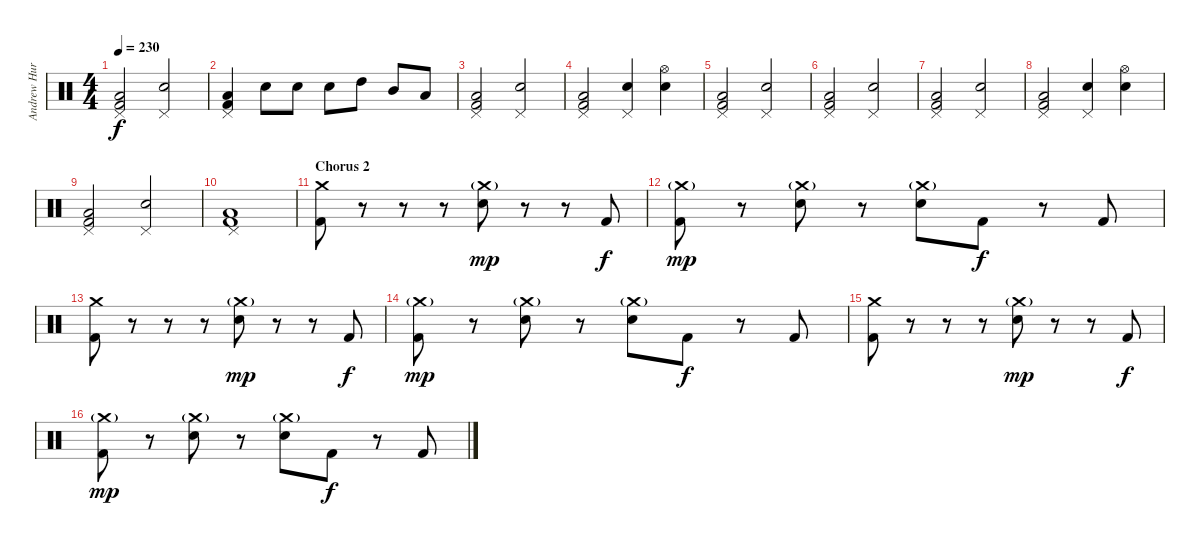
\track ("Andrew Hurley (Drums)" "Andrew Hur") {instrument percussion}
\staff {score}
\articulation defaults
\ts (4 4)
\tempo 230
\clef neutral
\ks c
("Pedal Hi-Hat (hit)" "Low Floor Tom (hit)" "Kick (hit) 2").2{dy f} ("Pedal Hi-Hat (hit)" "Electric Snare (hit)").2 |
("Pedal Hi-Hat (hit)" "Low Floor Tom (hit)" "Kick (hit) 2").4 "Electric Snare (hit)".8 "Electric Snare (hit)".8 "Electric Snare (hit)".8 "High Tom (hit)".8 "Mid Tom (hit)".8 "Low Tom (hit)".8 |
("Pedal Hi-Hat (hit)" "Low Floor Tom (hit)" "Kick (hit) 2").2 ("Pedal Hi-Hat (hit)" "Electric Snare (hit)").2 |
("Pedal Hi-Hat (hit)" "Low Floor Tom (hit)" "Kick (hit) 2").2 ("Pedal Hi-Hat (hit)" "Electric Snare (hit)").4 ("Hi-Hat (open)" "Electric Snare (hit)").4 |
("Pedal Hi-Hat (hit)" "Low Floor Tom (hit)" "Kick (hit) 2").2 ("Pedal Hi-Hat (hit)" "Electric Snare (hit)").2 |
("Pedal Hi-Hat (hit)" "Low Floor Tom (hit)" "Kick (hit) 2").2 ("Pedal Hi-Hat (hit)" "Electric Snare (hit)").2 |
("Pedal Hi-Hat (hit)" "Low Floor Tom (hit)" "Kick (hit) 2").2 ("Pedal Hi-Hat (hit)" "Electric Snare (hit)").2 |
("Pedal Hi-Hat (hit)" "Low Floor Tom (hit)" "Kick (hit) 2").2 ("Pedal Hi-Hat (hit)" "Electric Snare (hit)").4 ("Hi-Hat (open)" "Electric Snare (hit)").4 |
("Pedal Hi-Hat (hit)" "Low Floor Tom (hit)" "Kick (hit) 2").2 ("Pedal Hi-Hat (hit)" "Electric Snare (hit)").2 |
("Pedal Hi-Hat (hit)" "Low Floor Tom (hit)" "Kick (hit) 2").1 |
\section ("" "Chorus 2")
("Crash medium (hit)" "Kick (hit) 2").8 r.8 r.8 r.8 ("Crash medium (hit)"{g} "Electric Snare (hit)").8{dy mp} r.8 r.8 "Kick (hit) 2".8{dy f} |
("Crash medium (hit)"{g} "Kick (hit) 2").8{dy mp} r.8 ("Crash medium (hit)"{g} "Electric Snare (hit)").8 r.8 ("Crash medium (hit)"{g} "Electric Snare (hit)").8 "Kick (hit) 2".8{dy f} r.8 "Kick (hit) 2".8 |
("Crash medium (hit)" "Kick (hit) 2").8 r.8 r.8 r.8 ("Crash medium (hit)"{g} "Electric Snare (hit)").8{dy mp} r.8 r.8 "Kick (hit) 2".8{dy f} |
("Crash medium (hit)"{g} "Kick (hit) 2").8{dy mp} r.8 ("Crash medium (hit)"{g} "Electric Snare (hit)").8 r.8 ("Crash medium (hit)"{g} "Electric Snare (hit)").8 "Kick (hit) 2".8{dy f} r.8 "Kick (hit) 2".8 |
("Crash medium (hit)" "Kick (hit) 2").8 r.8 r.8 r.8 ("Crash medium (hit)"{g} "Electric Snare (hit)").8{dy mp} r.8 r.8 "Kick (hit) 2".8{dy f} |
("Crash medium (hit)"{g} "Kick (hit) 2").8{dy mp} r.8 ("Crash medium (hit)"{g} "Electric Snare (hit)").8 r.8 ("Crash medium (hit)"{g} "Electric Snare (hit)").8 "Kick (hit) 2".8{dy f} r.8 "Kick (hit) 2".8
